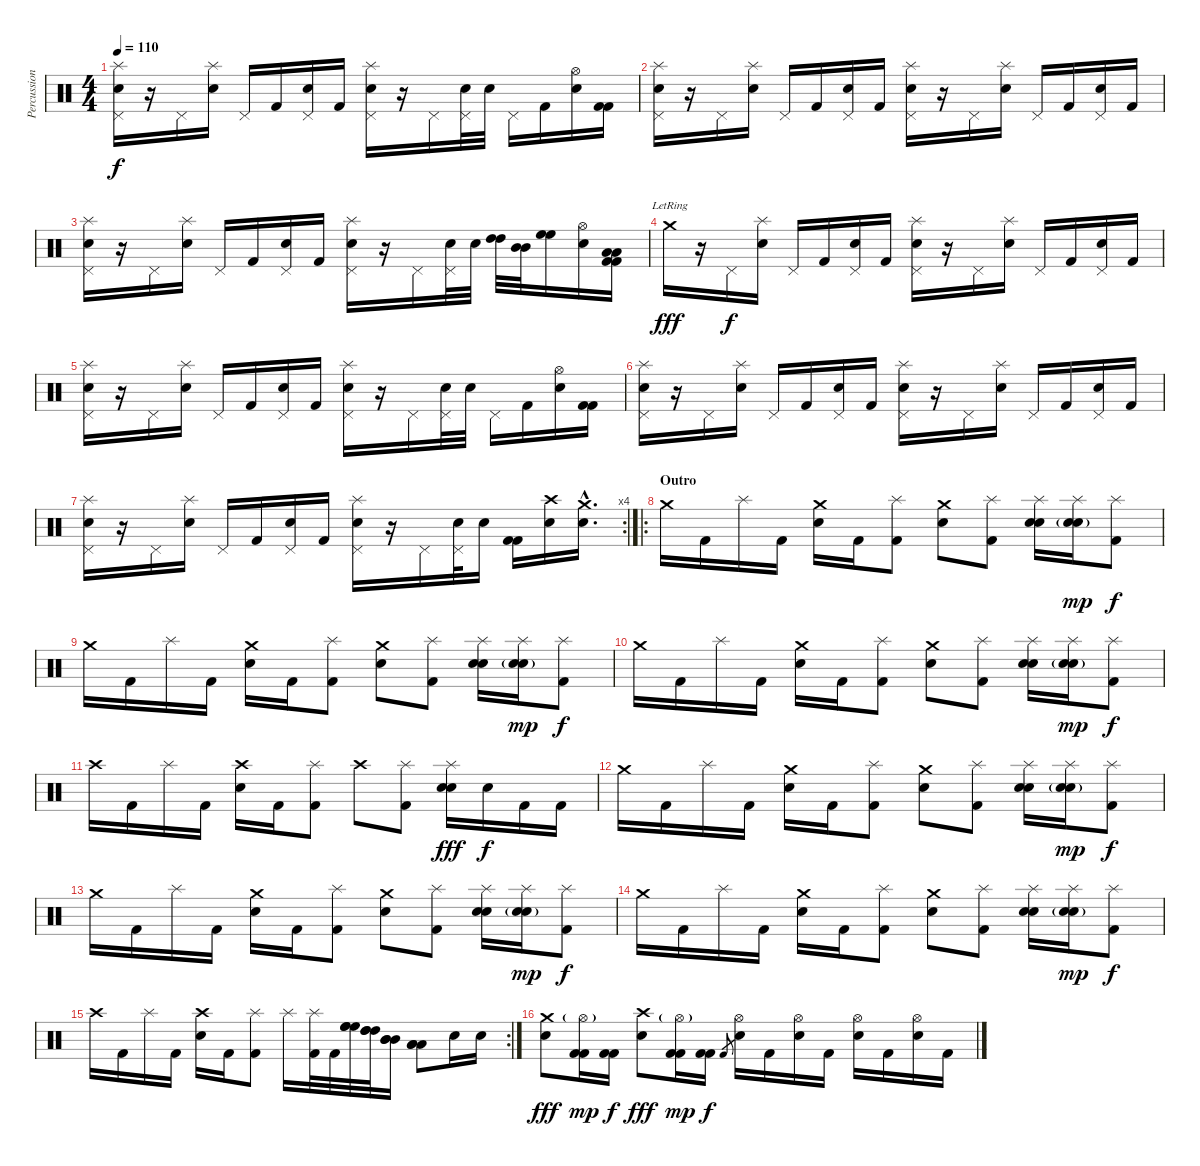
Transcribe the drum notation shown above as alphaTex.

\track ("Percussion" "Percussion") {instrument percussion}
\staff {score}
\articulation defaults
\ts (4 4)
\tempo 110
\clef neutral
\ks c
("Splash (hit)" "Electric Snare (hit)" "Pedal Hi-Hat (hit)").16{dy f} r.16 "Pedal Hi-Hat (hit)".16 ("Splash (hit)" "Electric Snare (hit)").16 "Pedal Hi-Hat (hit)".16 "Kick (hit) 2".16 ("Electric Snare (hit)" "Pedal Hi-Hat (hit)").16 "Kick (hit) 2".16 ("Splash (hit)" "Electric Snare (hit)" "Pedal Hi-Hat (hit)").16 r.16 "Pedal Hi-Hat (hit)".16 ("Electric Snare (hit)" "Pedal Hi-Hat (hit)").32 "Electric Snare (hit)".32 "Pedal Hi-Hat (hit)".16 "Kick (hit) 2".16 ("Snare (hit) 2" "Hi-Hat (open)").16 ("Kick (hit) 2" "Kick (hit) 2").16 |
("Splash (hit)" "Electric Snare (hit)" "Pedal Hi-Hat (hit)").16 r.16 "Pedal Hi-Hat (hit)".16 ("Splash (hit)" "Electric Snare (hit)").16 "Pedal Hi-Hat (hit)".16 "Kick (hit) 2".16 ("Electric Snare (hit)" "Pedal Hi-Hat (hit)").16 "Kick (hit) 2".16 ("Splash (hit)" "Electric Snare (hit)" "Pedal Hi-Hat (hit)").16 r.16 "Pedal Hi-Hat (hit)".16 ("Splash (hit)" "Electric Snare (hit)").16 "Pedal Hi-Hat (hit)".16 "Kick (hit) 2".16 ("Electric Snare (hit)" "Pedal Hi-Hat (hit)").16 "Kick (hit) 2".16 |
("Splash (hit)" "Electric Snare (hit)" "Pedal Hi-Hat (hit)").16 r.16 "Pedal Hi-Hat (hit)".16 ("Splash (hit)" "Electric Snare (hit)").16 "Pedal Hi-Hat (hit)".16 "Kick (hit) 2".16 ("Electric Snare (hit)" "Pedal Hi-Hat (hit)").16 "Kick (hit) 2".16 ("Splash (hit)" "Electric Snare (hit)" "Pedal Hi-Hat (hit)").16 r.16 "Pedal Hi-Hat (hit)".16 ("Electric Snare (hit)" "Pedal Hi-Hat (hit)").32 "Electric Snare (hit)".32 ("High Tom (hit)" "High Tom (hit)").32 ("Mid Tom (hit)" "Mid Tom (hit)").32 ("High Floor Tom (hit)" "High Floor Tom (hit)").16 ("Snare (hit) 2" "Hi-Hat (open)").16 ("Low Tom (hit)" "Low Tom (hit)" "Kick (hit) 2" "Kick (hit) 2").16 |
"Crash medium (hit)"{lr}.16{dy fff} r.16 "Pedal Hi-Hat (hit)".16{dy f} ("Splash (hit)" "Electric Snare (hit)").16 "Pedal Hi-Hat (hit)".16 "Kick (hit) 2".16 ("Electric Snare (hit)" "Pedal Hi-Hat (hit)").16 "Kick (hit) 2".16 ("Splash (hit)" "Electric Snare (hit)" "Pedal Hi-Hat (hit)").16 r.16 "Pedal Hi-Hat (hit)".16 ("Splash (hit)" "Electric Snare (hit)").16 "Pedal Hi-Hat (hit)".16 "Kick (hit) 2".16 ("Electric Snare (hit)" "Pedal Hi-Hat (hit)").16 "Kick (hit) 2".16 |
("Splash (hit)" "Electric Snare (hit)" "Pedal Hi-Hat (hit)").16 r.16 "Pedal Hi-Hat (hit)".16 ("Splash (hit)" "Electric Snare (hit)").16 "Pedal Hi-Hat (hit)".16 "Kick (hit) 2".16 ("Electric Snare (hit)" "Pedal Hi-Hat (hit)").16 "Kick (hit) 2".16 ("Splash (hit)" "Electric Snare (hit)" "Pedal Hi-Hat (hit)").16 r.16 "Pedal Hi-Hat (hit)".16 ("Electric Snare (hit)" "Pedal Hi-Hat (hit)").32 "Electric Snare (hit)".32 "Pedal Hi-Hat (hit)".16 "Kick (hit) 2".16 ("Snare (hit) 2" "Hi-Hat (open)").16 ("Kick (hit) 2" "Kick (hit) 2").16 |
("Splash (hit)" "Electric Snare (hit)" "Pedal Hi-Hat (hit)").16 r.16 "Pedal Hi-Hat (hit)".16 ("Splash (hit)" "Electric Snare (hit)").16 "Pedal Hi-Hat (hit)".16 "Kick (hit) 2".16 ("Electric Snare (hit)" "Pedal Hi-Hat (hit)").16 "Kick (hit) 2".16 ("Splash (hit)" "Electric Snare (hit)" "Pedal Hi-Hat (hit)").16 r.16 "Pedal Hi-Hat (hit)".16 ("Splash (hit)" "Electric Snare (hit)").16 "Pedal Hi-Hat (hit)".16 "Kick (hit) 2".16 ("Electric Snare (hit)" "Pedal Hi-Hat (hit)").16 "Kick (hit) 2".16 |
\rc 4
("Splash (hit)" "Electric Snare (hit)" "Pedal Hi-Hat (hit)").16 r.16 "Pedal Hi-Hat (hit)".16 ("Splash (hit)" "Electric Snare (hit)").16 "Pedal Hi-Hat (hit)".16 "Kick (hit) 2".16 ("Electric Snare (hit)" "Pedal Hi-Hat (hit)").16 "Kick (hit) 2".16 ("Splash (hit)" "Electric Snare (hit)" "Pedal Hi-Hat (hit)").16 r.16 "Pedal Hi-Hat (hit)".16 ("Electric Snare (hit)" "Pedal Hi-Hat (hit)").32 "Electric Snare (hit)".16 ("Kick (hit) 2" "Kick (hit) 2").16 ("Snare (hit) 2" "Crash high (hit)").16 ("Snare (hit) 2"{hac} "Crash medium (hit)"{hac}).16{d} |
\ro
\section ("" "Outro")
"Crash medium (hit)".16 "Kick (hit) 2".16 "Splash (hit)".16 "Kick (hit) 2".16 ("Crash medium (hit)" "Snare (hit) 2").16 "Kick (hit) 2".16 ("Splash (hit)" "Kick (hit) 2").8 ("Crash medium (hit)" "Snare (hit) 2").8 ("Splash (hit)" "Kick (hit) 2").8 ("Hand Clap (hit)" "Splash (hit)" "Snare (hit) 2").16 ("Hand Clap (hit)"{g} "Splash (hit)" "Snare (hit) 2").16{dy mp} ("Splash (hit)" "Kick (hit) 2").8{dy f} |
"Crash medium (hit)".16 "Kick (hit) 2".16 "Splash (hit)".16 "Kick (hit) 2".16 ("Crash medium (hit)" "Snare (hit) 2").16 "Kick (hit) 2".16 ("Splash (hit)" "Kick (hit) 2").8 ("Crash medium (hit)" "Snare (hit) 2").8 ("Splash (hit)" "Kick (hit) 2").8 ("Hand Clap (hit)" "Splash (hit)" "Snare (hit) 2").16 ("Hand Clap (hit)"{g} "Splash (hit)" "Snare (hit) 2").16{dy mp} ("Splash (hit)" "Kick (hit) 2").8{dy f} |
"Crash medium (hit)".16 "Kick (hit) 2".16 "Splash (hit)".16 "Kick (hit) 2".16 ("Crash medium (hit)" "Snare (hit) 2").16 "Kick (hit) 2".16 ("Splash (hit)" "Kick (hit) 2").8 ("Crash medium (hit)" "Snare (hit) 2").8 ("Splash (hit)" "Kick (hit) 2").8 ("Hand Clap (hit)" "Splash (hit)" "Snare (hit) 2").16 ("Hand Clap (hit)"{g} "Splash (hit)" "Snare (hit) 2").16{dy mp} ("Splash (hit)" "Kick (hit) 2").8{dy f} |
"Crash high (hit)".16 "Kick (hit) 2".16 "Splash (hit)".16 "Kick (hit) 2".16 ("Crash high (hit)" "Snare (hit) 2").16 "Kick (hit) 2".16 ("Splash (hit)" "Kick (hit) 2").8 "Crash high (hit)".8 ("Splash (hit)" "Kick (hit) 2").8 ("Hand Clap (hit)" "Splash (hit)" "Snare (hit) 2").16{dy fff} "Snare (hit) 2".16{dy f} "Kick (hit) 2".16 "Kick (hit) 2".16 |
"Crash medium (hit)".16 "Kick (hit) 2".16 "Splash (hit)".16 "Kick (hit) 2".16 ("Crash medium (hit)" "Snare (hit) 2").16 "Kick (hit) 2".16 ("Splash (hit)" "Kick (hit) 2").8 ("Crash medium (hit)" "Snare (hit) 2").8 ("Splash (hit)" "Kick (hit) 2").8 ("Hand Clap (hit)" "Splash (hit)" "Snare (hit) 2").16 ("Hand Clap (hit)"{g} "Splash (hit)" "Snare (hit) 2").16{dy mp} ("Splash (hit)" "Kick (hit) 2").8{dy f} |
"Crash medium (hit)".16 "Kick (hit) 2".16 "Splash (hit)".16 "Kick (hit) 2".16 ("Crash medium (hit)" "Snare (hit) 2").16 "Kick (hit) 2".16 ("Splash (hit)" "Kick (hit) 2").8 ("Crash medium (hit)" "Snare (hit) 2").8 ("Splash (hit)" "Kick (hit) 2").8 ("Hand Clap (hit)" "Splash (hit)" "Snare (hit) 2").16 ("Hand Clap (hit)"{g} "Splash (hit)" "Snare (hit) 2").16{dy mp} ("Splash (hit)" "Kick (hit) 2").8{dy f} |
"Crash medium (hit)".16 "Kick (hit) 2".16 "Splash (hit)".16 "Kick (hit) 2".16 ("Crash medium (hit)" "Snare (hit) 2").16 "Kick (hit) 2".16 ("Splash (hit)" "Kick (hit) 2").8 ("Crash medium (hit)" "Snare (hit) 2").8 ("Splash (hit)" "Kick (hit) 2").8 ("Hand Clap (hit)" "Splash (hit)" "Snare (hit) 2").16 ("Hand Clap (hit)"{g} "Splash (hit)" "Snare (hit) 2").16{dy mp} ("Splash (hit)" "Kick (hit) 2").8{dy f} |
\rc 2 "Crash high (hit)".16 "Kick (hit) 2".16 "Splash (hit)".16 "Kick (hit) 2".16
("Crash high (hit)" "Snare (hit) 2").16 "Kick (hit) 2".16 ("Splash (hit)" "Kick (hit) 2").8 "Splash (hit)".16 ("Splash (hit)" "Kick (hit) 2").32 "Kick (hit) 2".32 ("High Floor Tom (hit)" "High Floor Tom (hit)" "High Floor Tom (hit)").32 ("High Tom (hit)" "High Tom (hit)" "High Tom (hit)").32 ("Mid Tom (hit)" "Mid Tom (hit)" "Mid Tom (hit)").16 ("Low Tom (hit)" "Low Tom (hit)" "Low Tom (hit)").8 "Snare (hit) 2".16 "Snare (hit) 2".16 |
("Crash medium (hit)" "Snare (hit) 2").8{dy fff} ("Hi-Hat (open)"{g} "Kick (hit) 2" "Kick (hit) 2").16{dy mp} ("Kick (hit) 2" "Kick (hit) 2").16{dy f} ("Crash high (hit)" "Snare (hit) 2").8{dy fff} ("Hi-Hat (open)"{g} "Kick (hit) 2" "Kick (hit) 2").16{dy mp} ("Kick (hit) 2" "Kick (hit) 2").16{dy f} "Kick (hit) 2".8{gr} ("Hi-Hat (open)" "Electric Snare (hit)").16 "Kick (hit) 2".16 ("Hi-Hat (open)" "Electric Snare (hit)").16 "Kick (hit) 2".16 ("Hi-Hat (open)" "Electric Snare (hit)").16 "Kick (hit) 2".16 ("Hi-Hat (open)" "Electric Snare (hit)").16 "Kick (hit) 2".16
